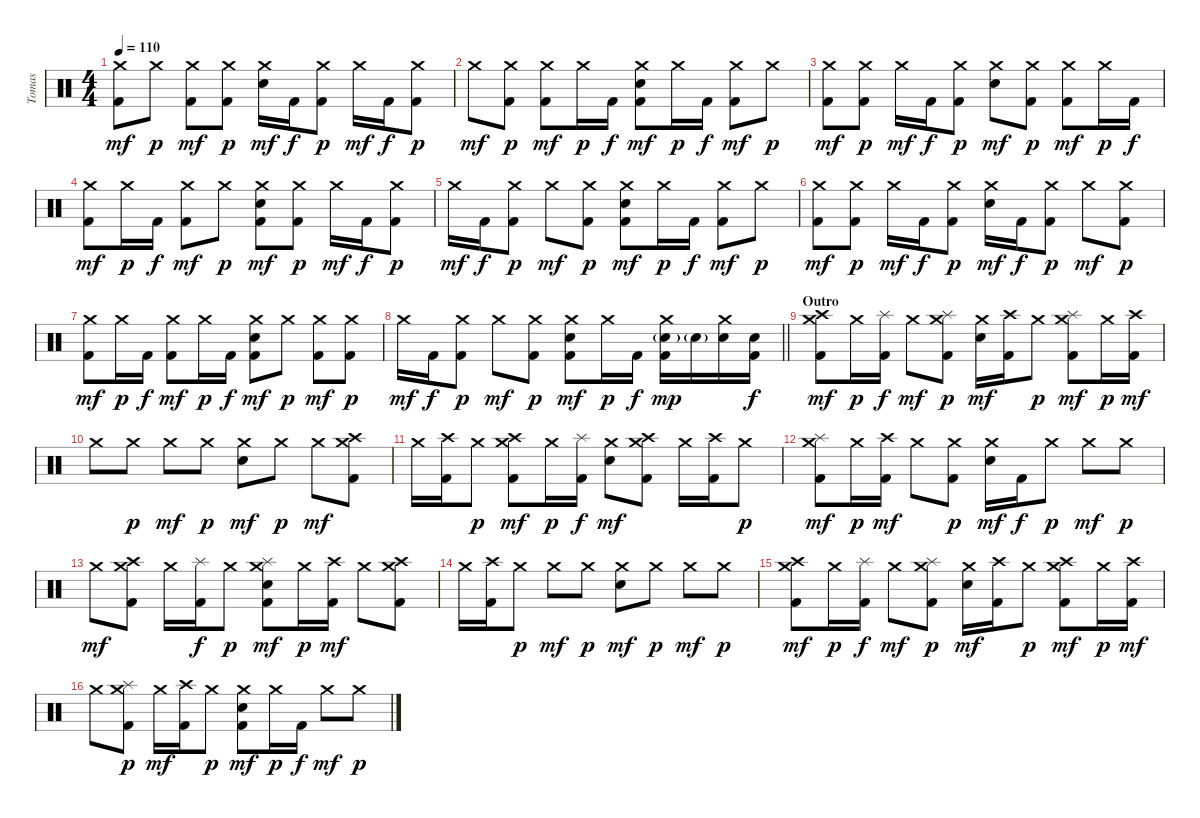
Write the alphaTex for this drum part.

\track ("Tomas" "Tomas") {instrument percussion}
\staff {score}
\articulation defaults
\ts (4 4)
\tempo 110
\clef neutral
\ks c
("Crash medium (hit)" "Kick (hit) 2").8{dy mf} "Crash medium (hit)".8{dy p} ("Crash medium (hit)" "Kick (hit) 2").8{dy mf} ("Crash medium (hit)" "Kick (hit) 2").8{dy p} ("Crash medium (hit)" "Electric Snare (hit)").16{dy mf} "Kick (hit) 2".16{dy f} ("Crash medium (hit)" "Kick (hit) 2").8{dy p} "Crash medium (hit)".16{dy mf} "Kick (hit) 2".16{dy f} ("Crash medium (hit)" "Kick (hit) 2").8{dy p} |
"Crash medium (hit)".8{dy mf} ("Crash medium (hit)" "Kick (hit) 2").8{dy p} ("Crash medium (hit)" "Kick (hit) 2").8{dy mf} "Crash medium (hit)".16{dy p} "Kick (hit) 2".16{dy f} ("Crash medium (hit)" "Electric Snare (hit)" "Kick (hit) 2").8{dy mf} "Crash medium (hit)".16{dy p} "Kick (hit) 2".16{dy f} ("Crash medium (hit)" "Kick (hit) 2").8{dy mf} "Crash medium (hit)".8{dy p} |
("Crash medium (hit)" "Kick (hit) 2").8{dy mf} ("Crash medium (hit)" "Kick (hit) 2").8{dy p} "Crash medium (hit)".16{dy mf} "Kick (hit) 2".16{dy f} ("Crash medium (hit)" "Kick (hit) 2").8{dy p} ("Crash medium (hit)" "Electric Snare (hit)").8{dy mf} ("Crash medium (hit)" "Kick (hit) 2").8{dy p} ("Crash medium (hit)" "Kick (hit) 2").8{dy mf} "Crash medium (hit)".16{dy p} "Kick (hit) 2".16{dy f} |
("Crash medium (hit)" "Kick (hit) 2").8{dy mf} "Crash medium (hit)".16{dy p} "Kick (hit) 2".16{dy f} ("Crash medium (hit)" "Kick (hit) 2").8{dy mf} "Crash medium (hit)".8{dy p} ("Crash medium (hit)" "Electric Snare (hit)" "Kick (hit) 2").8{dy mf} ("Crash medium (hit)" "Kick (hit) 2").8{dy p} "Crash medium (hit)".16{dy mf} "Kick (hit) 2".16{dy f} ("Crash medium (hit)" "Kick (hit) 2").8{dy p} |
"Crash medium (hit)".16{dy mf} "Kick (hit) 2".16{dy f} ("Crash medium (hit)" "Kick (hit) 2").8{dy p} "Crash medium (hit)".8{dy mf} ("Crash medium (hit)" "Kick (hit) 2").8{dy p} ("Crash medium (hit)" "Electric Snare (hit)" "Kick (hit) 2").8{dy mf} "Crash medium (hit)".16{dy p} "Kick (hit) 2".16{dy f} ("Crash medium (hit)" "Kick (hit) 2").8{dy mf} "Crash medium (hit)".8{dy p} |
("Crash medium (hit)" "Kick (hit) 2").8{dy mf} ("Crash medium (hit)" "Kick (hit) 2").8{dy p} "Crash medium (hit)".16{dy mf} "Kick (hit) 2".16{dy f} ("Crash medium (hit)" "Kick (hit) 2").8{dy p} ("Crash medium (hit)" "Electric Snare (hit)").16{dy mf} "Kick (hit) 2".16{dy f} ("Crash medium (hit)" "Kick (hit) 2").8{dy p} "Crash medium (hit)".8{dy mf} ("Crash medium (hit)" "Kick (hit) 2").8{dy p} |
("Crash medium (hit)" "Kick (hit) 2").8{dy mf} "Crash medium (hit)".16{dy p} "Kick (hit) 2".16{dy f} ("Crash medium (hit)" "Kick (hit) 2").8{dy mf} "Crash medium (hit)".16{dy p} "Kick (hit) 2".16{dy f} ("Crash medium (hit)" "Electric Snare (hit)" "Kick (hit) 2").8{dy mf} "Crash medium (hit)".8{dy p} ("Crash medium (hit)" "Kick (hit) 2").8{dy mf} ("Crash medium (hit)" "Kick (hit) 2").8{dy p} |
\barLineRight lightlight "Crash medium (hit)".16{dy mf} "Kick (hit) 2".16{dy f}
("Crash medium (hit)" "Kick (hit) 2").8{dy p} "Crash medium (hit)".8{dy mf} ("Crash medium (hit)" "Kick (hit) 2").8{dy p} ("Crash medium (hit)" "Electric Snare (hit)" "Kick (hit) 2").8{dy mf} "Crash medium (hit)".16{dy p} "Kick (hit) 2".16{dy f} ("Crash medium (hit)" "Electric Snare (hit)"{g} "Kick (hit) 2").16{dy mp} "Electric Snare (hit)"{g}.16 ("Crash medium (hit)" "Electric Snare (hit)").16 ("Electric Snare (hit)" "Kick (hit) 2").16{dy f} |
\section ("" "Outro")
("Crash medium (hit)" "Crash high (hit)" "Kick (hit) 2").8{dy mf} "Crash medium (hit)".16{dy p} ("Splash (hit)" "Kick (hit) 2").16{dy f} "Crash medium (hit)".8{dy mf} ("Crash medium (hit)" "Splash (hit)" "Kick (hit) 2").8{dy p} ("Crash medium (hit)" "Electric Snare (hit)").16{dy mf} ("Crash high (hit)" "Kick (hit) 2").16 "Crash medium (hit)".8{dy p} ("Crash medium (hit)" "Splash (hit)" "Kick (hit) 2").8{dy mf} "Crash medium (hit)".16{dy p} ("Crash high (hit)" "Kick (hit) 2").16{dy mf} |
"Crash medium (hit)".8 "Crash medium (hit)".8{dy p} "Crash medium (hit)".8{dy mf} "Crash medium (hit)".8{dy p} ("Crash medium (hit)" "Electric Snare (hit)").8{dy mf} "Crash medium (hit)".8{dy p} "Crash medium (hit)".8{dy mf} ("Crash medium (hit)" "Crash high (hit)" "Kick (hit) 2").8 |
"Crash medium (hit)".16 ("Crash high (hit)" "Kick (hit) 2").16 "Crash medium (hit)".8{dy p} ("Crash medium (hit)" "Crash high (hit)" "Kick (hit) 2").8{dy mf} "Crash medium (hit)".16{dy p} ("Splash (hit)" "Kick (hit) 2").16{dy f} ("Crash medium (hit)" "Electric Snare (hit)").8{dy mf} ("Crash medium (hit)" "Crash high (hit)" "Kick (hit) 2").8 "Crash medium (hit)".16 ("Crash high (hit)" "Kick (hit) 2").16 "Crash medium (hit)".8{dy p} |
("Crash medium (hit)" "Splash (hit)" "Kick (hit) 2").8{dy mf} "Crash medium (hit)".16{dy p} ("Crash high (hit)" "Kick (hit) 2").16{dy mf} "Crash medium (hit)".8 ("Crash medium (hit)" "Kick (hit) 2").8{dy p} ("Crash medium (hit)" "Electric Snare (hit)").16{dy mf} "Kick (hit) 2".16{dy f} "Crash medium (hit)".8{dy p} "Crash medium (hit)".8{dy mf} "Crash medium (hit)".8{dy p} |
"Crash medium (hit)".8{dy mf} ("Crash medium (hit)" "Crash high (hit)" "Kick (hit) 2").8 "Crash medium (hit)".16 ("Splash (hit)" "Kick (hit) 2").16{dy f} "Crash medium (hit)".8{dy p} ("Crash medium (hit)" "Splash (hit)" "Electric Snare (hit)" "Kick (hit) 2").8{dy mf} "Crash medium (hit)".16{dy p} ("Crash high (hit)" "Kick (hit) 2").16{dy mf} "Crash medium (hit)".8 ("Crash medium (hit)" "Crash high (hit)" "Kick (hit) 2").8 |
"Crash medium (hit)".16 ("Crash high (hit)" "Kick (hit) 2").16 "Crash medium (hit)".8{dy p} "Crash medium (hit)".8{dy mf} "Crash medium (hit)".8{dy p} ("Crash medium (hit)" "Electric Snare (hit)").8{dy mf} "Crash medium (hit)".8{dy p} "Crash medium (hit)".8{dy mf} "Crash medium (hit)".8{dy p} |
("Crash medium (hit)" "Crash high (hit)" "Kick (hit) 2").8{dy mf} "Crash medium (hit)".16{dy p} ("Splash (hit)" "Kick (hit) 2").16{dy f} "Crash medium (hit)".8{dy mf} ("Crash medium (hit)" "Splash (hit)" "Kick (hit) 2").8{dy p} ("Crash medium (hit)" "Electric Snare (hit)").16{dy mf} ("Crash high (hit)" "Kick (hit) 2").16 "Crash medium (hit)".8{dy p} ("Crash medium (hit)" "Crash high (hit)" "Kick (hit) 2").8{dy mf} "Crash medium (hit)".16{dy p} ("Crash high (hit)" "Kick (hit) 2").16{dy mf} |
"Crash medium (hit)".8 ("Crash medium (hit)" "Splash (hit)" "Kick (hit) 2").8{dy p} "Crash medium (hit)".16{dy mf} ("Crash high (hit)" "Kick (hit) 2").16 "Crash medium (hit)".8{dy p} ("Crash medium (hit)" "Electric Snare (hit)" "Kick (hit) 2").8{dy mf} "Crash medium (hit)".16{dy p} "Kick (hit) 2".16{dy f} "Crash medium (hit)".8{dy mf} "Crash medium (hit)".8{dy p}
